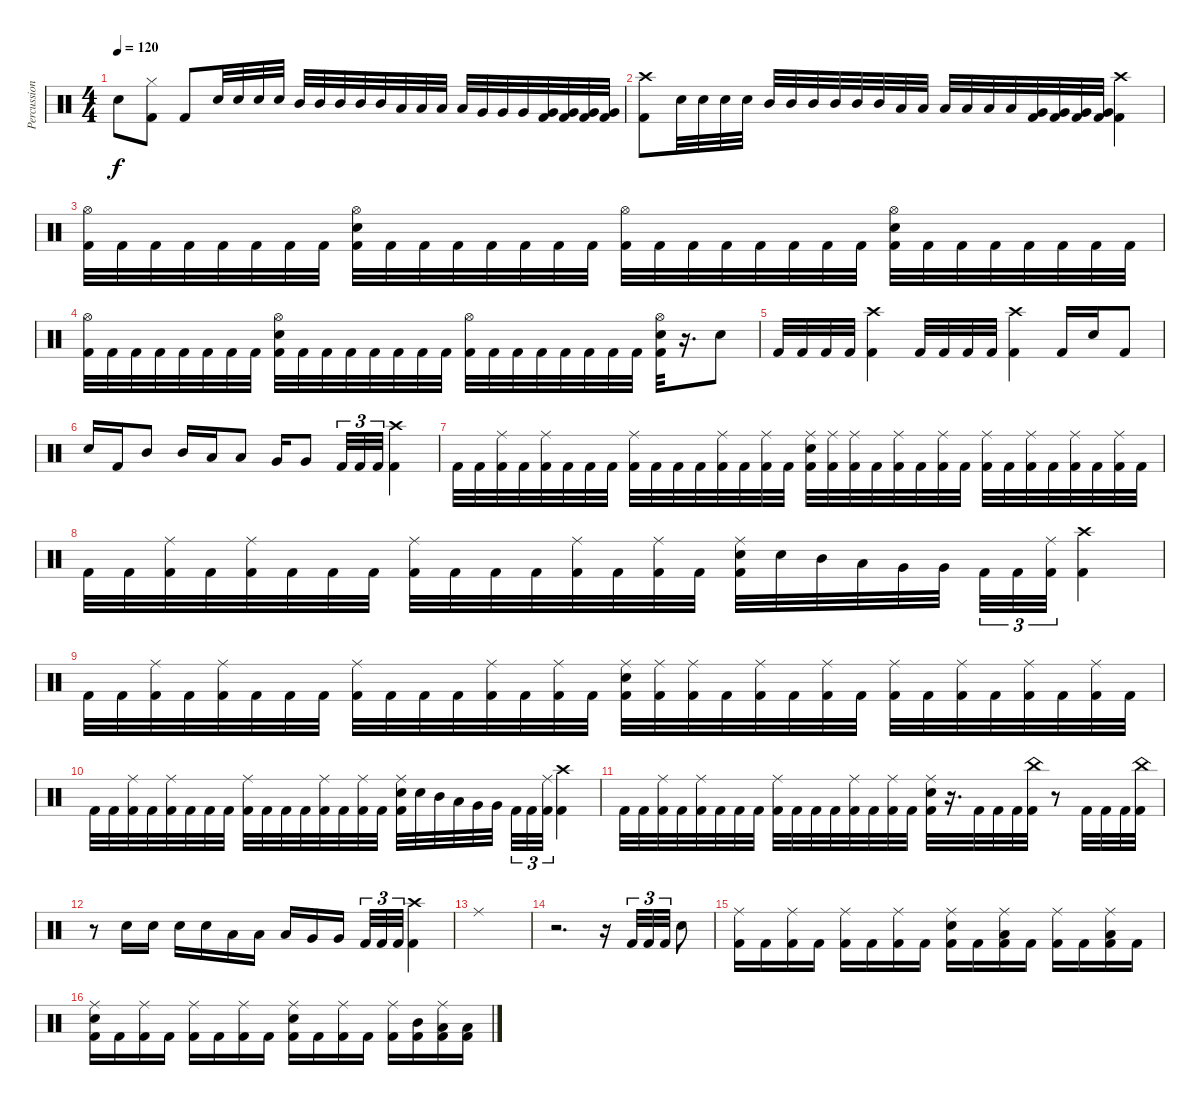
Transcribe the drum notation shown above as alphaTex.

\track ("Percussion" "Percussion") {instrument percussion}
\staff {score}
\articulation defaults
\ts (4 4)
\tempo 120
\clef neutral
\ks c "Snare (hit) 2".8{dy f}
("Hi-Hat (closed)" "Kick (hit) 2").8 "Kick (hit) 2".8 "Snare (hit) 2".32 "Snare (hit) 2".32 "Snare (hit) 2".32 "Snare (hit) 2".32 "Mid Tom (hit)".32 "Mid Tom (hit)".32 "Mid Tom (hit)".32 "Mid Tom (hit)".32 "Mid Tom (hit)".32 "Low Tom (hit)".32 "Low Tom (hit)".32 "Low Tom (hit)".32 "Low Tom (hit)".32 "Very Low Tom (hit)".32 "Very Low Tom (hit)".32 "Very Low Tom (hit)".32 ("Very Low Tom (hit)" "Kick (hit) 2").32 ("Very Low Tom (hit)" "Kick (hit) 2").32 ("Very Low Tom (hit)" "Kick (hit) 2").32 ("Very Low Tom (hit)" "Kick (hit) 2").32 |
("Crash high (hit)" "Kick (hit) 2").8 "Snare (hit) 2".32 "Snare (hit) 2".32 "Snare (hit) 2".32 "Snare (hit) 2".32 "Mid Tom (hit)".32 "Mid Tom (hit)".32 "Mid Tom (hit)".32 "Mid Tom (hit)".32 "Mid Tom (hit)".32 "Mid Tom (hit)".32 "Low Tom (hit)".32 "Low Tom (hit)".32 "Low Tom (hit)".32 "Low Tom (hit)".32 "Low Tom (hit)".32 "Low Tom (hit)".32 ("Very Low Tom (hit)" "Kick (hit) 2").32 ("Very Low Tom (hit)" "Kick (hit) 2").32 ("Very Low Tom (hit)" "Kick (hit) 2").32 ("Very Low Tom (hit)" "Kick (hit) 2").32 ("Crash high (hit)" "Kick (hit) 2").4 |
("Hi-Hat (open)" "Kick (hit) 2").32 "Kick (hit) 2".32 "Kick (hit) 2".32 "Kick (hit) 2".32 "Kick (hit) 2".32 "Kick (hit) 2".32 "Kick (hit) 2".32 "Kick (hit) 2".32 ("Hi-Hat (open)" "Snare (hit) 2" "Kick (hit) 2").32 "Kick (hit) 2".32 "Kick (hit) 2".32 "Kick (hit) 2".32 "Kick (hit) 2".32 "Kick (hit) 2".32 "Kick (hit) 2".32 "Kick (hit) 2".32 ("Hi-Hat (open)" "Kick (hit) 2").32 "Kick (hit) 2".32 "Kick (hit) 2".32 "Kick (hit) 2".32 "Kick (hit) 2".32 "Kick (hit) 2".32 "Kick (hit) 2".32 "Kick (hit) 2".32 ("Hi-Hat (open)" "Snare (hit) 2" "Kick (hit) 2").32 "Kick (hit) 2".32 "Kick (hit) 2".32 "Kick (hit) 2".32 "Kick (hit) 2".32 "Kick (hit) 2".32 "Kick (hit) 2".32 "Kick (hit) 2".32 |
("Hi-Hat (open)" "Kick (hit) 2").32 "Kick (hit) 2".32 "Kick (hit) 2".32 "Kick (hit) 2".32 "Kick (hit) 2".32 "Kick (hit) 2".32 "Kick (hit) 2".32 "Kick (hit) 2".32 ("Hi-Hat (open)" "Snare (hit) 2" "Kick (hit) 2").32 "Kick (hit) 2".32 "Kick (hit) 2".32 "Kick (hit) 2".32 "Kick (hit) 2".32 "Kick (hit) 2".32 "Kick (hit) 2".32 "Kick (hit) 2".32 ("Hi-Hat (open)" "Kick (hit) 2").32 "Kick (hit) 2".32 "Kick (hit) 2".32 "Kick (hit) 2".32 "Kick (hit) 2".32 "Kick (hit) 2".32 "Kick (hit) 2".32 "Kick (hit) 2".32 ("Hi-Hat (open)" "Snare (hit) 2" "Kick (hit) 2").32 r.16{d} "Snare (hit) 2".8 |
"Kick (hit) 2".32 "Kick (hit) 2".32 "Kick (hit) 2".32 "Kick (hit) 2".32 ("Crash high (hit)" "Kick (hit) 2").4 "Kick (hit) 2".32 "Kick (hit) 2".32 "Kick (hit) 2".32 "Kick (hit) 2".32 ("Crash high (hit)" "Kick (hit) 2").4 "Kick (hit) 2".16 "Snare (hit) 2".16 "Kick (hit) 2".8 |
"Snare (hit) 2".16 "Kick (hit) 2".16 "Mid Tom (hit)".8 "Mid Tom (hit)".16 "Low Tom (hit)".16 "Low Tom (hit)".8 "Very Low Tom (hit)".16 "Very Low Tom (hit)".8 "Kick (hit) 2".32{tu (3 2)} "Kick (hit) 2".32{tu (3 2)} "Kick (hit) 2".32{tu (3 2)} ("Crash high (hit)" "Kick (hit) 2").4 |
"Kick (hit) 2".32 "Kick (hit) 2".32 ("Ride (middle)" "Kick (hit) 2").32 "Kick (hit) 2".32 ("Ride (middle)" "Kick (hit) 2").32 "Kick (hit) 2".32 "Kick (hit) 2".32 "Kick (hit) 2".32 ("Ride (middle)" "Kick (hit) 2").32 "Kick (hit) 2".32 "Kick (hit) 2".32 "Kick (hit) 2".32 ("Ride (middle)" "Kick (hit) 2").32 "Kick (hit) 2".32 ("Ride (middle)" "Kick (hit) 2").32 "Kick (hit) 2".32 ("Ride (middle)" "Snare (hit) 2" "Kick (hit) 2").32 ("Ride (middle)" "Kick (hit) 2").32 ("Ride (middle)" "Kick (hit) 2").32 "Kick (hit) 2".32 ("Ride (middle)" "Kick (hit) 2").32 "Kick (hit) 2".32 ("Ride (middle)" "Kick (hit) 2").32 "Kick (hit) 2".32 ("Ride (middle)" "Kick (hit) 2").32 "Kick (hit) 2".32 ("Ride (middle)" "Kick (hit) 2").32 "Kick (hit) 2".32 ("Ride (middle)" "Kick (hit) 2").32 "Kick (hit) 2".32 ("Ride (middle)" "Kick (hit) 2").32 "Kick (hit) 2".32 |
"Kick (hit) 2".32 "Kick (hit) 2".32 ("Ride (middle)" "Kick (hit) 2").32 "Kick (hit) 2".32 ("Ride (middle)" "Kick (hit) 2").32 "Kick (hit) 2".32 "Kick (hit) 2".32 "Kick (hit) 2".32 ("Ride (middle)" "Kick (hit) 2").32 "Kick (hit) 2".32 "Kick (hit) 2".32 "Kick (hit) 2".32 ("Ride (middle)" "Kick (hit) 2").32 "Kick (hit) 2".32 ("Ride (middle)" "Kick (hit) 2").32 "Kick (hit) 2".32 ("Ride (middle)" "Snare (hit) 2" "Kick (hit) 2").32 "Snare (hit) 2".32 "Mid Tom (hit)".32 "Low Tom (hit)".32 "Very Low Tom (hit)".32 "Very Low Tom (hit)".32 "Kick (hit) 2".32{tu (3 2)} "Kick (hit) 2".32{tu (3 2)} ("Ride (middle)" "Kick (hit) 2").32{tu (3 2)} ("Crash high (hit)" "Kick (hit) 2").4 |
"Kick (hit) 2".32 "Kick (hit) 2".32 ("Ride (middle)" "Kick (hit) 2").32 "Kick (hit) 2".32 ("Ride (middle)" "Kick (hit) 2").32 "Kick (hit) 2".32 "Kick (hit) 2".32 "Kick (hit) 2".32 ("Ride (middle)" "Kick (hit) 2").32 "Kick (hit) 2".32 "Kick (hit) 2".32 "Kick (hit) 2".32 ("Ride (middle)" "Kick (hit) 2").32 "Kick (hit) 2".32 ("Ride (middle)" "Kick (hit) 2").32 "Kick (hit) 2".32 ("Ride (middle)" "Snare (hit) 2" "Kick (hit) 2").32 ("Ride (middle)" "Kick (hit) 2").32 ("Ride (middle)" "Kick (hit) 2").32 "Kick (hit) 2".32 ("Ride (middle)" "Kick (hit) 2").32 "Kick (hit) 2".32 ("Ride (middle)" "Kick (hit) 2").32 "Kick (hit) 2".32 ("Ride (middle)" "Kick (hit) 2").32 "Kick (hit) 2".32 ("Ride (middle)" "Kick (hit) 2").32 "Kick (hit) 2".32 ("Ride (middle)" "Kick (hit) 2").32 "Kick (hit) 2".32 ("Ride (middle)" "Kick (hit) 2").32 "Kick (hit) 2".32 |
"Kick (hit) 2".32 "Kick (hit) 2".32 ("Ride (middle)" "Kick (hit) 2").32 "Kick (hit) 2".32 ("Ride (middle)" "Kick (hit) 2").32 "Kick (hit) 2".32 "Kick (hit) 2".32 "Kick (hit) 2".32 ("Ride (middle)" "Kick (hit) 2").32 "Kick (hit) 2".32 "Kick (hit) 2".32 "Kick (hit) 2".32 ("Ride (middle)" "Kick (hit) 2").32 "Kick (hit) 2".32 ("Ride (middle)" "Kick (hit) 2").32 "Kick (hit) 2".32 ("Ride (middle)" "Snare (hit) 2" "Kick (hit) 2").32 "Snare (hit) 2".32 "Mid Tom (hit)".32 "Low Tom (hit)".32 "Very Low Tom (hit)".32 "Very Low Tom (hit)".32 "Kick (hit) 2".32{tu (3 2)} "Kick (hit) 2".32{tu (3 2)} ("Ride (middle)" "Kick (hit) 2").32{tu (3 2)} ("Crash high (hit)" "Kick (hit) 2").4 |
"Kick (hit) 2".32 "Kick (hit) 2".32 ("Ride (middle)" "Kick (hit) 2").32 "Kick (hit) 2".32 ("Ride (middle)" "Kick (hit) 2").32 "Kick (hit) 2".32 "Kick (hit) 2".32 "Kick (hit) 2".32 ("Ride (middle)" "Kick (hit) 2").32 "Kick (hit) 2".32 "Kick (hit) 2".32 "Kick (hit) 2".32 ("Ride (middle)" "Kick (hit) 2").32 "Kick (hit) 2".32 ("Ride (middle)" "Kick (hit) 2").32 "Kick (hit) 2".32 ("Ride (middle)" "Snare (hit) 2" "Kick (hit) 2").32 r.16{d} "Kick (hit) 2".32 "Kick (hit) 2".32 "Kick (hit) 2".32 ("China (hit)" "Kick (hit) 2").32 r.8 "Kick (hit) 2".32 "Kick (hit) 2".32 "Kick (hit) 2".32 ("China (hit)" "Kick (hit) 2").32 |
r.8 "Snare (hit) 2".16 "Snare (hit) 2".16 "Snare (hit) 2".16 "Snare (hit) 2".16 "Low Tom (hit)".16 "Low Tom (hit)".16 "Low Tom (hit)".16 "Very Low Tom (hit)".16 "Very Low Tom (hit)".16 "Kick (hit) 2".32{tu (3 2)} "Kick (hit) 2".32{tu (3 2)} "Kick (hit) 2".32{tu (3 2)} ("Crash high (hit)" "Kick (hit) 2").4 |
"Ride (middle)".1 |
r.2{d} r.16 "Kick (hit) 2".32{tu (3 2)} "Kick (hit) 2".32{tu (3 2)} "Kick (hit) 2".32{tu (3 2)} "Snare (hit) 2".8 |
("Ride (middle)" "Kick (hit) 2").16 "Kick (hit) 2".16 ("Ride (middle)" "Kick (hit) 2").16 "Kick (hit) 2".16 ("Ride (middle)" "Kick (hit) 2").16 "Kick (hit) 2".16 ("Ride (middle)" "Kick (hit) 2").16 "Kick (hit) 2".16 ("Ride (middle)" "Snare (hit) 2" "Kick (hit) 2").16 "Kick (hit) 2".16 ("Ride (middle)" "Low Tom (hit)" "Kick (hit) 2").16 "Kick (hit) 2".16 ("Ride (middle)" "Kick (hit) 2").16 "Kick (hit) 2".16 ("Ride (middle)" "Low Tom (hit)" "Kick (hit) 2").16 "Kick (hit) 2".16 |
("Ride (middle)" "Snare (hit) 2" "Kick (hit) 2").16 "Kick (hit) 2".16 ("Ride (middle)" "Kick (hit) 2").16 "Kick (hit) 2".16 ("Ride (middle)" "Kick (hit) 2").16 "Kick (hit) 2".16 ("Ride (middle)" "Kick (hit) 2").16 "Kick (hit) 2".16 ("Ride (middle)" "Snare (hit) 2" "Kick (hit) 2").16 "Kick (hit) 2".16 ("Ride (middle)" "Kick (hit) 2").16 "Kick (hit) 2".16 ("Ride (middle)" "Kick (hit) 2").16 ("Mid Tom (hit)" "Kick (hit) 2").16 ("Ride (middle)" "Low Tom (hit)" "Kick (hit) 2").16 ("Low Tom (hit)" "Kick (hit) 2").16
